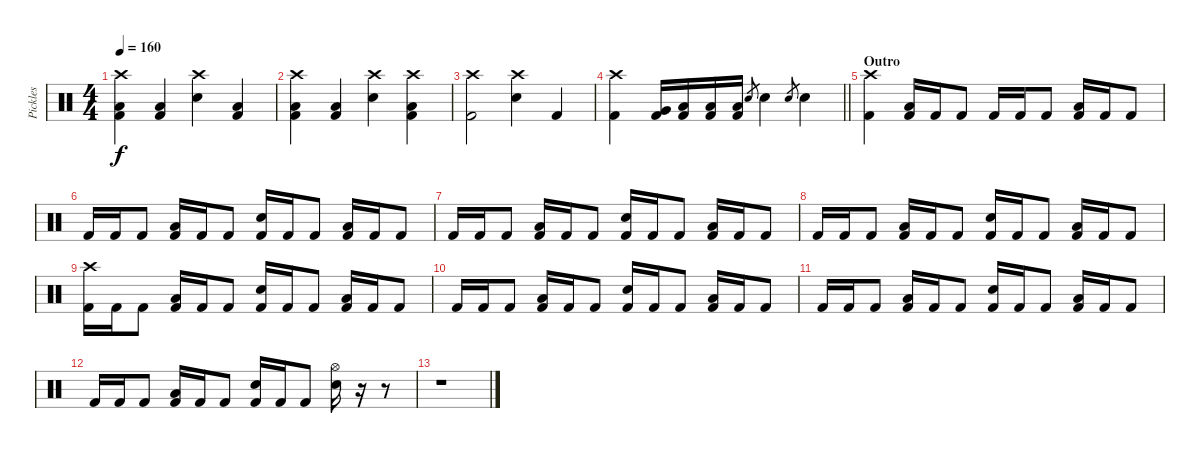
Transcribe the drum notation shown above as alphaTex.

\track ("Pickles" "Pickles") {instrument percussion}
\staff {score}
\articulation defaults
\ts (4 4)
\tempo 160
\clef neutral
\ks c
("Crash high (hit)" "Low Tom (hit)" "Kick (hit) 2").4{dy f} ("Low Tom (hit)" "Kick (hit) 2").4 ("Crash high (hit)" "Electric Snare (hit)").4 ("Low Tom (hit)" "Kick (hit) 2").4 |
("Crash high (hit)" "Low Tom (hit)" "Kick (hit) 2").4 ("Low Tom (hit)" "Kick (hit) 2").4 ("Crash high (hit)" "Electric Snare (hit)").4 ("Crash high (hit)" "Low Tom (hit)" "Kick (hit) 2").4 |
("Crash high (hit)" "Kick (hit) 2").2 ("Crash high (hit)" "Electric Snare (hit)").4 "Kick (hit) 2".4 |
\barLineRight lightlight
("Crash high (hit)" "Kick (hit) 2").4 ("Very Low Tom (hit)" "Kick (hit) 2").16 ("Low Floor Tom (hit)" "Kick (hit) 2").16 ("Low Floor Tom (hit)" "Kick (hit) 2").16 ("Low Floor Tom (hit)" "Kick (hit) 2").16 "Electric Snare (hit)".8{gr} "Electric Snare (hit)".4 "Electric Snare (hit)".8{gr} "Electric Snare (hit)".4 |
\section ("" "Outro")
("Kick (hit) 2" "Crash high (hit)").4 ("Kick (hit) 2" "Low Tom (hit)").16 "Kick (hit) 2".16 "Kick (hit) 2".8 "Kick (hit) 2".16 "Kick (hit) 2".16 "Kick (hit) 2".8 ("Kick (hit) 2" "Low Tom (hit)").16 "Kick (hit) 2".16 "Kick (hit) 2".8 |
"Kick (hit) 2".16 "Kick (hit) 2".16 "Kick (hit) 2".8 ("Kick (hit) 2" "Low Tom (hit)").16 "Kick (hit) 2".16 "Kick (hit) 2".8 ("Kick (hit) 2" "Electric Snare (hit)").16 "Kick (hit) 2".16 "Kick (hit) 2".8 ("Kick (hit) 2" "Low Tom (hit)").16 "Kick (hit) 2".16 "Kick (hit) 2".8 |
"Kick (hit) 2".16 "Kick (hit) 2".16 "Kick (hit) 2".8 ("Kick (hit) 2" "Low Tom (hit)").16 "Kick (hit) 2".16 "Kick (hit) 2".8 ("Kick (hit) 2" "Electric Snare (hit)").16 "Kick (hit) 2".16 "Kick (hit) 2".8 ("Kick (hit) 2" "Low Tom (hit)").16 "Kick (hit) 2".16 "Kick (hit) 2".8 |
"Kick (hit) 2".16 "Kick (hit) 2".16 "Kick (hit) 2".8 ("Kick (hit) 2" "Low Tom (hit)").16 "Kick (hit) 2".16 "Kick (hit) 2".8 ("Kick (hit) 2" "Electric Snare (hit)").16 "Kick (hit) 2".16 "Kick (hit) 2".8 ("Kick (hit) 2" "Low Tom (hit)").16 "Kick (hit) 2".16 "Kick (hit) 2".8 |
("Kick (hit) 2" "Crash high (hit)").16 "Kick (hit) 2".16 "Kick (hit) 2".8 ("Kick (hit) 2" "Low Tom (hit)").16 "Kick (hit) 2".16 "Kick (hit) 2".8 ("Kick (hit) 2" "Electric Snare (hit)").16 "Kick (hit) 2".16 "Kick (hit) 2".8 ("Kick (hit) 2" "Low Tom (hit)").16 "Kick (hit) 2".16 "Kick (hit) 2".8 |
"Kick (hit) 2".16 "Kick (hit) 2".16 "Kick (hit) 2".8 ("Kick (hit) 2" "Low Tom (hit)").16 "Kick (hit) 2".16 "Kick (hit) 2".8 ("Kick (hit) 2" "Electric Snare (hit)").16 "Kick (hit) 2".16 "Kick (hit) 2".8 ("Kick (hit) 2" "Low Tom (hit)").16 "Kick (hit) 2".16 "Kick (hit) 2".8 |
"Kick (hit) 2".16 "Kick (hit) 2".16 "Kick (hit) 2".8 ("Kick (hit) 2" "Low Tom (hit)").16 "Kick (hit) 2".16 "Kick (hit) 2".8 ("Kick (hit) 2" "Electric Snare (hit)").16 "Kick (hit) 2".16 "Kick (hit) 2".8 ("Kick (hit) 2" "Low Tom (hit)").16 "Kick (hit) 2".16 "Kick (hit) 2".8 |
"Kick (hit) 2".16 "Kick (hit) 2".16 "Kick (hit) 2".8 ("Kick (hit) 2" "Low Tom (hit)").16 "Kick (hit) 2".16 "Kick (hit) 2".8 ("Kick (hit) 2" "Electric Snare (hit)").16 "Kick (hit) 2".16 "Kick (hit) 2".8 ("Hi-Hat (open)" "Electric Snare (hit)").16 r.16 r.8 |
r.1
